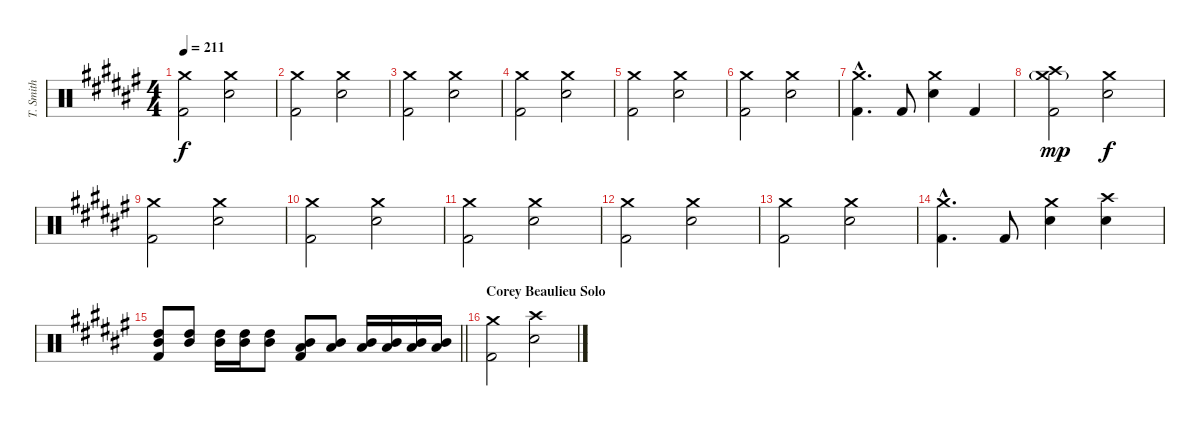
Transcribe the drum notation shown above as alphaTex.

\track ("T. Smith" "T. Smith") {instrument percussion}
\staff {score}
\articulation defaults
\ts (4 4)
\tempo 211
\clef neutral
\ks d#minor
("Crash medium (hit)" "Kick (hit) 2").2{dy f} ("Crash medium (hit)" "Electric Snare (hit)").2 |
("Crash medium (hit)" "Kick (hit) 2").2 ("Crash medium (hit)" "Electric Snare (hit)").2 |
("Crash medium (hit)" "Kick (hit) 2").2 ("Crash medium (hit)" "Electric Snare (hit)").2 |
("Crash medium (hit)" "Kick (hit) 2").2 ("Crash medium (hit)" "Electric Snare (hit)").2 |
("Crash medium (hit)" "Kick (hit) 2").2 ("Crash medium (hit)" "Electric Snare (hit)").2 |
("Crash medium (hit)" "Kick (hit) 2").2 ("Crash medium (hit)" "Electric Snare (hit)").2 |
("Crash medium (hit)"{hac} "Kick (hit) 2"{hac}).4{d} "Kick (hit) 2".8 ("Crash medium (hit)" "Electric Snare (hit)").4 "Kick (hit) 2".4 |
("Crash medium (hit)"{g} "Crash high (hit)" "Kick (hit) 2").2{dy mp} ("Crash medium (hit)" "Electric Snare (hit)").2{dy f} |
("Crash medium (hit)" "Kick (hit) 2").2 ("Crash medium (hit)" "Electric Snare (hit)").2 |
("Crash medium (hit)" "Kick (hit) 2").2 ("Crash medium (hit)" "Electric Snare (hit)").2 |
("Crash medium (hit)" "Kick (hit) 2").2 ("Crash medium (hit)" "Electric Snare (hit)").2 |
("Crash medium (hit)" "Kick (hit) 2").2 ("Crash medium (hit)" "Electric Snare (hit)").2 |
("Crash medium (hit)" "Kick (hit) 2").2 ("Crash medium (hit)" "Electric Snare (hit)").2 |
("Crash medium (hit)"{hac} "Kick (hit) 2"{hac}).4{d} "Kick (hit) 2".8 ("Crash medium (hit)" "Electric Snare (hit)").4 ("Crash high (hit)" "Electric Snare (hit)").4 |
\barLineRight lightlight
("High Tom (hit)" "Mid Tom (hit)" "Kick (hit) 2").8 ("High Tom (hit)" "Mid Tom (hit)").8 ("High Tom (hit)" "Mid Tom (hit)").16 ("High Tom (hit)" "Mid Tom (hit)").16 ("High Tom (hit)" "Mid Tom (hit)").8 ("Mid Tom (hit)" "Low Tom (hit)" "Kick (hit) 2").8 ("Mid Tom (hit)" "Low Tom (hit)").8 ("Mid Tom (hit)" "Low Tom (hit)").16 ("Mid Tom (hit)" "Low Tom (hit)").16 ("Mid Tom (hit)" "Low Tom (hit)").16 ("Mid Tom (hit)" "Low Tom (hit)").16 |
\section ("" "Corey Beaulieu Solo")
("Crash medium (hit)" "Kick (hit) 2").2 ("Crash high (hit)" "Electric Snare (hit)").2
